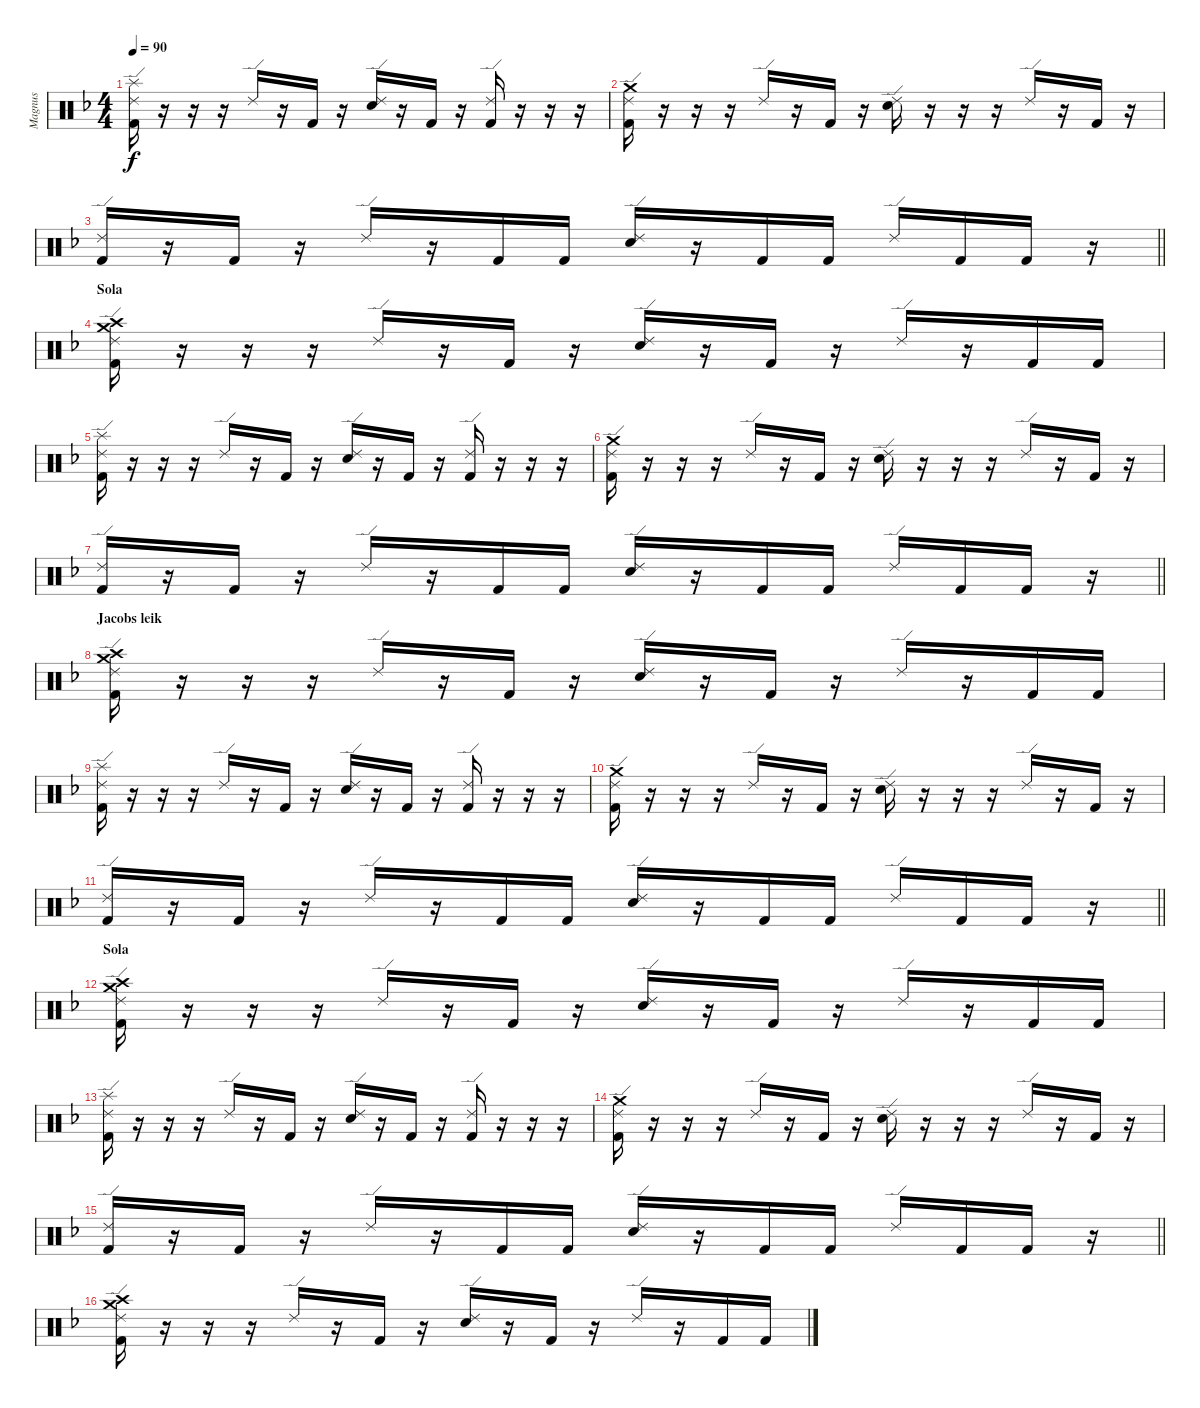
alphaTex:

\track ("Magnus" "Magnus") {instrument percussion}
\staff {score}
\articulation defaults
\ts (4 4)
\tempo 90
\clef neutral
\ks dminor
("Splash (hit)" "Ride (edge) 2" "Kick (hit) 2").16{dy f} r.16 r.16 r.16 "Ride (edge) 2".16 r.16 "Kick (hit) 2".16 r.16 ("Ride (edge) 2" "Snare (hit) 2").16 r.16 "Kick (hit) 2".16 r.16 ("Ride (edge) 2" "Kick (hit) 2").16 r.16 r.16 r.16 |
("Crash medium (hit)" "Ride (edge) 2" "Kick (hit) 2").16 r.16 r.16 r.16 "Ride (edge) 2".16 r.16 "Kick (hit) 2".16 r.16 ("Ride (edge) 2" "Snare (hit) 2").16 r.16 r.16 r.16 "Ride (edge) 2".16 r.16 "Kick (hit) 2".16 r.16 |
\barLineRight lightlight
("Ride (edge) 2" "Kick (hit) 2").16 r.16 "Kick (hit) 2".16 r.16 "Ride (edge) 2".16 r.16 "Kick (hit) 2".16 "Kick (hit) 2".16 ("Ride (edge) 2" "Snare (hit) 2").16 r.16 "Kick (hit) 2".16 "Kick (hit) 2".16 "Ride (edge) 2".16 "Kick (hit) 2".16 "Kick (hit) 2".16 r.16 |
\section ("" "Sola")
("Crash medium (hit)" "Crash high (hit)" "Ride (edge) 2" "Kick (hit) 2").16 r.16 r.16 r.16 "Ride (edge) 2".16 r.16 "Kick (hit) 2".16 r.16 ("Ride (edge) 2" "Snare (hit) 2").16 r.16 "Kick (hit) 2".16 r.16 "Ride (edge) 2".16 r.16 "Kick (hit) 2".16 "Kick (hit) 2".16 |
("Splash (hit)" "Ride (edge) 2" "Kick (hit) 2").16 r.16 r.16 r.16 "Ride (edge) 2".16 r.16 "Kick (hit) 2".16 r.16 ("Ride (edge) 2" "Snare (hit) 2").16 r.16 "Kick (hit) 2".16 r.16 ("Ride (edge) 2" "Kick (hit) 2").16 r.16 r.16 r.16 |
("Crash medium (hit)" "Ride (edge) 2" "Kick (hit) 2").16 r.16 r.16 r.16 "Ride (edge) 2".16 r.16 "Kick (hit) 2".16 r.16 ("Ride (edge) 2" "Snare (hit) 2").16 r.16 r.16 r.16 "Ride (edge) 2".16 r.16 "Kick (hit) 2".16 r.16 |
\barLineRight lightlight
("Ride (edge) 2" "Kick (hit) 2").16 r.16 "Kick (hit) 2".16 r.16 "Ride (edge) 2".16 r.16 "Kick (hit) 2".16 "Kick (hit) 2".16 ("Ride (edge) 2" "Snare (hit) 2").16 r.16 "Kick (hit) 2".16 "Kick (hit) 2".16 "Ride (edge) 2".16 "Kick (hit) 2".16 "Kick (hit) 2".16 r.16 |
\section ("" "Jacobs leik")
("Crash medium (hit)" "Crash high (hit)" "Ride (edge) 2" "Kick (hit) 2").16 r.16 r.16 r.16 "Ride (edge) 2".16 r.16 "Kick (hit) 2".16 r.16 ("Ride (edge) 2" "Snare (hit) 2").16 r.16 "Kick (hit) 2".16 r.16 "Ride (edge) 2".16 r.16 "Kick (hit) 2".16 "Kick (hit) 2".16 |
("Splash (hit)" "Ride (edge) 2" "Kick (hit) 2").16 r.16 r.16 r.16 "Ride (edge) 2".16 r.16 "Kick (hit) 2".16 r.16 ("Ride (edge) 2" "Snare (hit) 2").16 r.16 "Kick (hit) 2".16 r.16 ("Ride (edge) 2" "Kick (hit) 2").16 r.16 r.16 r.16 |
("Crash medium (hit)" "Ride (edge) 2" "Kick (hit) 2").16 r.16 r.16 r.16 "Ride (edge) 2".16 r.16 "Kick (hit) 2".16 r.16 ("Ride (edge) 2" "Snare (hit) 2").16 r.16 r.16 r.16 "Ride (edge) 2".16 r.16 "Kick (hit) 2".16 r.16 |
\barLineRight lightlight
("Ride (edge) 2" "Kick (hit) 2").16 r.16 "Kick (hit) 2".16 r.16 "Ride (edge) 2".16 r.16 "Kick (hit) 2".16 "Kick (hit) 2".16 ("Ride (edge) 2" "Snare (hit) 2").16 r.16 "Kick (hit) 2".16 "Kick (hit) 2".16 "Ride (edge) 2".16 "Kick (hit) 2".16 "Kick (hit) 2".16 r.16 |
\section ("" "Sola")
("Crash medium (hit)" "Crash high (hit)" "Ride (edge) 2" "Kick (hit) 2").16 r.16 r.16 r.16 "Ride (edge) 2".16 r.16 "Kick (hit) 2".16 r.16 ("Ride (edge) 2" "Snare (hit) 2").16 r.16 "Kick (hit) 2".16 r.16 "Ride (edge) 2".16 r.16 "Kick (hit) 2".16 "Kick (hit) 2".16 |
("Splash (hit)" "Ride (edge) 2" "Kick (hit) 2").16 r.16 r.16 r.16 "Ride (edge) 2".16 r.16 "Kick (hit) 2".16 r.16 ("Ride (edge) 2" "Snare (hit) 2").16 r.16 "Kick (hit) 2".16 r.16 ("Ride (edge) 2" "Kick (hit) 2").16 r.16 r.16 r.16 |
("Crash medium (hit)" "Ride (edge) 2" "Kick (hit) 2").16 r.16 r.16 r.16 "Ride (edge) 2".16 r.16 "Kick (hit) 2".16 r.16 ("Ride (edge) 2" "Snare (hit) 2").16 r.16 r.16 r.16 "Ride (edge) 2".16 r.16 "Kick (hit) 2".16 r.16 |
\barLineRight lightlight
("Ride (edge) 2" "Kick (hit) 2").16 r.16 "Kick (hit) 2".16 r.16 "Ride (edge) 2".16 r.16 "Kick (hit) 2".16 "Kick (hit) 2".16 ("Ride (edge) 2" "Snare (hit) 2").16 r.16 "Kick (hit) 2".16 "Kick (hit) 2".16 "Ride (edge) 2".16 "Kick (hit) 2".16 "Kick (hit) 2".16 r.16 |
("Crash medium (hit)" "Crash high (hit)" "Ride (edge) 2" "Kick (hit) 2").16 r.16 r.16 r.16 "Ride (edge) 2".16 r.16 "Kick (hit) 2".16 r.16 ("Ride (edge) 2" "Snare (hit) 2").16 r.16 "Kick (hit) 2".16 r.16 "Ride (edge) 2".16 r.16 "Kick (hit) 2".16 "Kick (hit) 2".16
